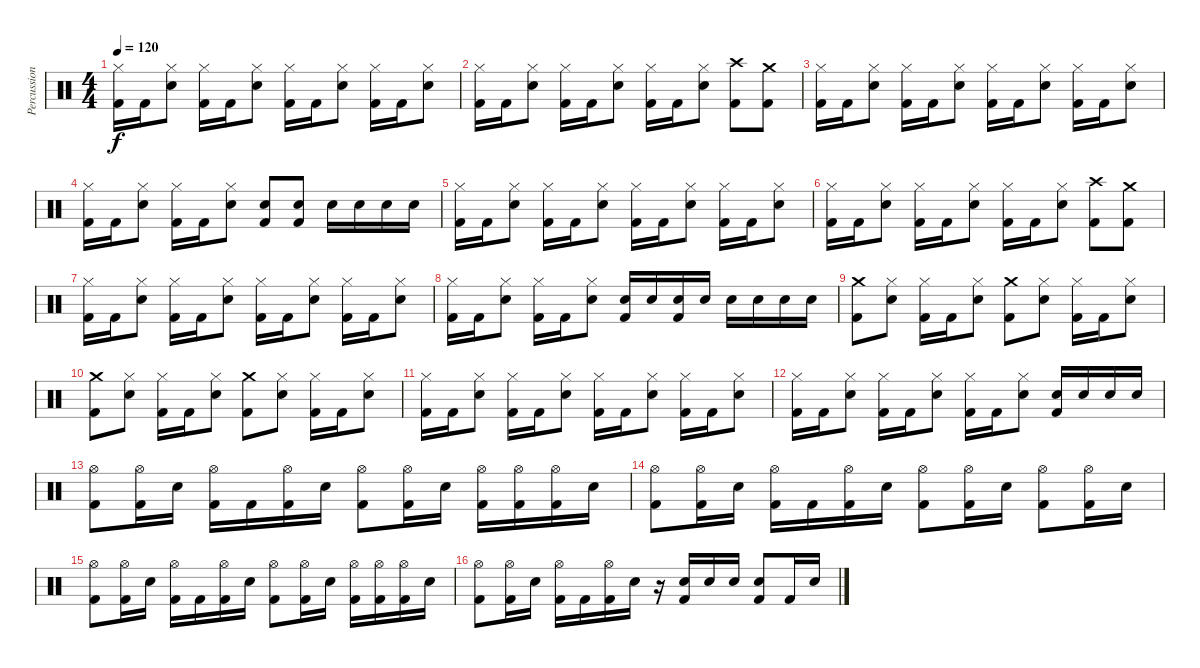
\track ("Percussion" "Percussion") {instrument percussion}
\staff {score}
\articulation defaults
\ts (4 4)
\tempo 120
\clef neutral
\ks c
("Hi-Hat (closed)" "Kick (hit) 2").16{dy f} "Kick (hit) 2".16 ("Hi-Hat (closed)" "Snare (hit) 2").8 ("Hi-Hat (closed)" "Kick (hit) 2").16 "Kick (hit) 2".16 ("Hi-Hat (closed)" "Snare (hit) 2").8 ("Hi-Hat (closed)" "Kick (hit) 2").16 "Kick (hit) 2".16 ("Hi-Hat (closed)" "Snare (hit) 2").8 ("Hi-Hat (closed)" "Kick (hit) 2").16 "Kick (hit) 2".16 ("Hi-Hat (closed)" "Snare (hit) 2").8 |
("Hi-Hat (closed)" "Kick (hit) 2").16 "Kick (hit) 2".16 ("Hi-Hat (closed)" "Snare (hit) 2").8 ("Hi-Hat (closed)" "Kick (hit) 2").16 "Kick (hit) 2".16 ("Hi-Hat (closed)" "Snare (hit) 2").8 ("Hi-Hat (closed)" "Kick (hit) 2").16 "Kick (hit) 2".16 ("Hi-Hat (closed)" "Snare (hit) 2").8 ("Crash high (hit)" "Kick (hit) 2").8 ("Crash medium (hit)" "Kick (hit) 2").8 |
("Hi-Hat (closed)" "Kick (hit) 2").16 "Kick (hit) 2".16 ("Hi-Hat (closed)" "Snare (hit) 2").8 ("Hi-Hat (closed)" "Kick (hit) 2").16 "Kick (hit) 2".16 ("Hi-Hat (closed)" "Snare (hit) 2").8 ("Hi-Hat (closed)" "Kick (hit) 2").16 "Kick (hit) 2".16 ("Hi-Hat (closed)" "Snare (hit) 2").8 ("Hi-Hat (closed)" "Kick (hit) 2").16 "Kick (hit) 2".16 ("Hi-Hat (closed)" "Snare (hit) 2").8 |
("Hi-Hat (closed)" "Kick (hit) 2").16 "Kick (hit) 2".16 ("Hi-Hat (closed)" "Snare (hit) 2").8 ("Hi-Hat (closed)" "Kick (hit) 2").16 "Kick (hit) 2".16 ("Hi-Hat (closed)" "Snare (hit) 2").8 ("Snare (hit) 2" "Kick (hit) 2").8 ("Snare (hit) 2" "Kick (hit) 2").8 "Snare (hit) 2".16 "Snare (hit) 2".16 "Snare (hit) 2".16 "Snare (hit) 2".16 |
("Hi-Hat (closed)" "Kick (hit) 2").16 "Kick (hit) 2".16 ("Hi-Hat (closed)" "Snare (hit) 2").8 ("Hi-Hat (closed)" "Kick (hit) 2").16 "Kick (hit) 2".16 ("Hi-Hat (closed)" "Snare (hit) 2").8 ("Hi-Hat (closed)" "Kick (hit) 2").16 "Kick (hit) 2".16 ("Hi-Hat (closed)" "Snare (hit) 2").8 ("Hi-Hat (closed)" "Kick (hit) 2").16 "Kick (hit) 2".16 ("Hi-Hat (closed)" "Snare (hit) 2").8 |
("Hi-Hat (closed)" "Kick (hit) 2").16 "Kick (hit) 2".16 ("Hi-Hat (closed)" "Snare (hit) 2").8 ("Hi-Hat (closed)" "Kick (hit) 2").16 "Kick (hit) 2".16 ("Hi-Hat (closed)" "Snare (hit) 2").8 ("Hi-Hat (closed)" "Kick (hit) 2").16 "Kick (hit) 2".16 ("Hi-Hat (closed)" "Snare (hit) 2").8 ("Crash high (hit)" "Kick (hit) 2").8 ("Crash medium (hit)" "Kick (hit) 2").8 |
("Hi-Hat (closed)" "Kick (hit) 2").16 "Kick (hit) 2".16 ("Hi-Hat (closed)" "Snare (hit) 2").8 ("Hi-Hat (closed)" "Kick (hit) 2").16 "Kick (hit) 2".16 ("Hi-Hat (closed)" "Snare (hit) 2").8 ("Hi-Hat (closed)" "Kick (hit) 2").16 "Kick (hit) 2".16 ("Hi-Hat (closed)" "Snare (hit) 2").8 ("Hi-Hat (closed)" "Kick (hit) 2").16 "Kick (hit) 2".16 ("Hi-Hat (closed)" "Snare (hit) 2").8 |
("Hi-Hat (closed)" "Kick (hit) 2").16 "Kick (hit) 2".16 ("Hi-Hat (closed)" "Snare (hit) 2").8 ("Hi-Hat (closed)" "Kick (hit) 2").16 "Kick (hit) 2".16 ("Hi-Hat (closed)" "Snare (hit) 2").8 ("Snare (hit) 2" "Kick (hit) 2").16 "Snare (hit) 2".16 ("Snare (hit) 2" "Kick (hit) 2").16 "Snare (hit) 2".16 "Snare (hit) 2".16 "Snare (hit) 2".16 "Snare (hit) 2".16 "Snare (hit) 2".16 |
("Crash medium (hit)" "Kick (hit) 2").8 ("Hi-Hat (closed)" "Snare (hit) 2").8 ("Hi-Hat (closed)" "Kick (hit) 2").16 "Kick (hit) 2".16 ("Hi-Hat (closed)" "Snare (hit) 2").8 ("Crash medium (hit)" "Kick (hit) 2").8 ("Hi-Hat (closed)" "Snare (hit) 2").8 ("Hi-Hat (closed)" "Kick (hit) 2").16 "Kick (hit) 2".16 ("Hi-Hat (closed)" "Snare (hit) 2").8 |
("Crash medium (hit)" "Kick (hit) 2").8 ("Hi-Hat (closed)" "Snare (hit) 2").8 ("Hi-Hat (closed)" "Kick (hit) 2").16 "Kick (hit) 2".16 ("Hi-Hat (closed)" "Snare (hit) 2").8 ("Crash medium (hit)" "Kick (hit) 2").8 ("Hi-Hat (closed)" "Snare (hit) 2").8 ("Hi-Hat (closed)" "Kick (hit) 2").16 "Kick (hit) 2".16 ("Hi-Hat (closed)" "Snare (hit) 2").8 |
("Hi-Hat (closed)" "Kick (hit) 2").16 "Kick (hit) 2".16 ("Hi-Hat (closed)" "Snare (hit) 2").8 ("Hi-Hat (closed)" "Kick (hit) 2").16 "Kick (hit) 2".16 ("Hi-Hat (closed)" "Snare (hit) 2").8 ("Hi-Hat (closed)" "Kick (hit) 2").16 "Kick (hit) 2".16 ("Hi-Hat (closed)" "Snare (hit) 2").8 ("Hi-Hat (closed)" "Kick (hit) 2").16 "Kick (hit) 2".16 ("Hi-Hat (closed)" "Snare (hit) 2").8 |
("Hi-Hat (closed)" "Kick (hit) 2").16 "Kick (hit) 2".16 ("Hi-Hat (closed)" "Snare (hit) 2").8 ("Hi-Hat (closed)" "Kick (hit) 2").16 "Kick (hit) 2".16 ("Hi-Hat (closed)" "Snare (hit) 2").8 ("Hi-Hat (closed)" "Kick (hit) 2").16 "Kick (hit) 2".16 ("Hi-Hat (closed)" "Snare (hit) 2").8 ("Snare (hit) 2" "Kick (hit) 2").16 "Snare (hit) 2".16 "Snare (hit) 2".16 "Snare (hit) 2".16 |
("Hi-Hat (open)" "Kick (hit) 2").8 ("Hi-Hat (open)" "Kick (hit) 2").16 "Snare (hit) 2".16 ("Hi-Hat (open)" "Kick (hit) 2").16 "Kick (hit) 2".16 ("Hi-Hat (open)" "Kick (hit) 2").16 "Snare (hit) 2".16 ("Hi-Hat (open)" "Kick (hit) 2").8 ("Hi-Hat (open)" "Kick (hit) 2").16 "Snare (hit) 2".16 ("Hi-Hat (open)" "Kick (hit) 2").16 ("Hi-Hat (open)" "Kick (hit) 2").16 ("Hi-Hat (open)" "Kick (hit) 2").16 "Snare (hit) 2".16 |
("Hi-Hat (open)" "Kick (hit) 2").8 ("Hi-Hat (open)" "Kick (hit) 2").16 "Snare (hit) 2".16 ("Hi-Hat (open)" "Kick (hit) 2").16 "Kick (hit) 2".16 ("Hi-Hat (open)" "Kick (hit) 2").16 "Snare (hit) 2".16 ("Hi-Hat (open)" "Kick (hit) 2").8 ("Hi-Hat (open)" "Kick (hit) 2").16 "Snare (hit) 2".16 ("Hi-Hat (open)" "Kick (hit) 2").8 ("Hi-Hat (open)" "Kick (hit) 2").16 "Snare (hit) 2".16 |
("Hi-Hat (open)" "Kick (hit) 2").8 ("Hi-Hat (open)" "Kick (hit) 2").16 "Snare (hit) 2".16 ("Hi-Hat (open)" "Kick (hit) 2").16 "Kick (hit) 2".16 ("Hi-Hat (open)" "Kick (hit) 2").16 "Snare (hit) 2".16 ("Hi-Hat (open)" "Kick (hit) 2").8 ("Hi-Hat (open)" "Kick (hit) 2").16 "Snare (hit) 2".16 ("Hi-Hat (open)" "Kick (hit) 2").16 ("Hi-Hat (open)" "Kick (hit) 2").16 ("Hi-Hat (open)" "Kick (hit) 2").16 "Snare (hit) 2".16 |
("Hi-Hat (open)" "Kick (hit) 2").8 ("Hi-Hat (open)" "Kick (hit) 2").16 "Snare (hit) 2".16 ("Hi-Hat (open)" "Kick (hit) 2").16 "Kick (hit) 2".16 ("Hi-Hat (open)" "Kick (hit) 2").16 "Snare (hit) 2".16 r.16 ("Snare (hit) 2" "Kick (hit) 2").16 "Snare (hit) 2".16 "Snare (hit) 2".16 ("Snare (hit) 2" "Kick (hit) 2").8 "Kick (hit) 2".16 "Snare (hit) 2".16
